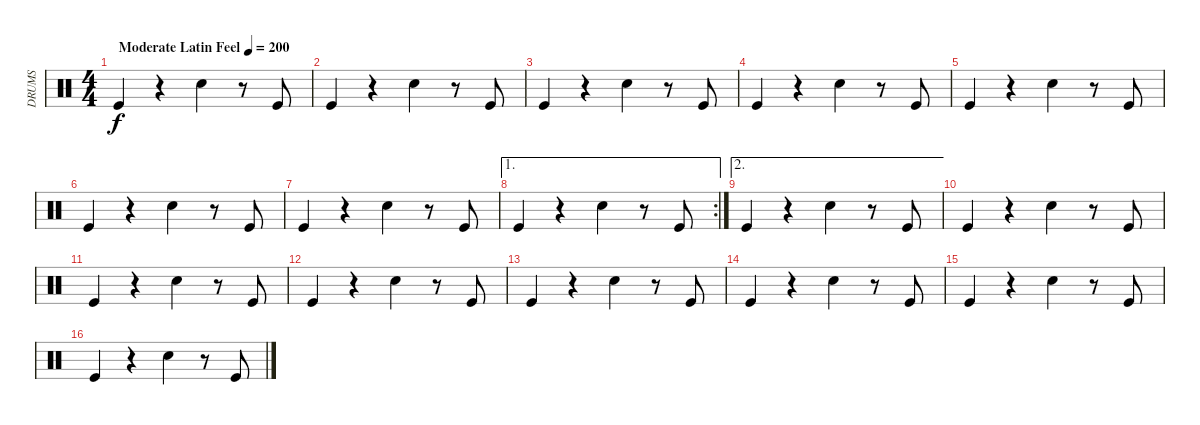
\track ("DRUMS" "DRUMS") {instrument percussion}
\staff {score}
\articulation defaults
\ts (4 4)
\tempo (200 "Moderate Latin Feel")
\clef neutral
\ks c "Kick (hit)".4{dy f}
r.4 "Snare (hit) 2".4 r.8 "Kick (hit)".8 |
"Kick (hit)".4 r.4 "Snare (hit) 2".4 r.8 "Kick (hit)".8 |
"Kick (hit)".4 r.4 "Snare (hit) 2".4 r.8 "Kick (hit)".8 |
"Kick (hit)".4 r.4 "Snare (hit) 2".4 r.8 "Kick (hit)".8 |
"Kick (hit)".4 r.4 "Snare (hit) 2".4 r.8 "Kick (hit)".8 |
"Kick (hit)".4 r.4 "Snare (hit) 2".4 r.8 "Kick (hit)".8 |
"Kick (hit)".4 r.4 "Snare (hit) 2".4 r.8 "Kick (hit)".8 |
\ae 1
\rc 2 "Kick (hit)".4
r.4 "Snare (hit) 2".4 r.8 "Kick (hit)".8 |
\ae 2 "Kick (hit)".4
r.4 "Snare (hit) 2".4 r.8 "Kick (hit)".8 |
"Kick (hit)".4 r.4 "Snare (hit) 2".4 r.8 "Kick (hit)".8 |
"Kick (hit)".4 r.4 "Snare (hit) 2".4 r.8 "Kick (hit)".8 |
"Kick (hit)".4 r.4 "Snare (hit) 2".4 r.8 "Kick (hit)".8 |
"Kick (hit)".4 r.4 "Snare (hit) 2".4 r.8 "Kick (hit)".8 |
"Kick (hit)".4 r.4 "Snare (hit) 2".4 r.8 "Kick (hit)".8 |
"Kick (hit)".4 r.4 "Snare (hit) 2".4 r.8 "Kick (hit)".8 |
"Kick (hit)".4 r.4 "Snare (hit) 2".4 r.8 "Kick (hit)".8
